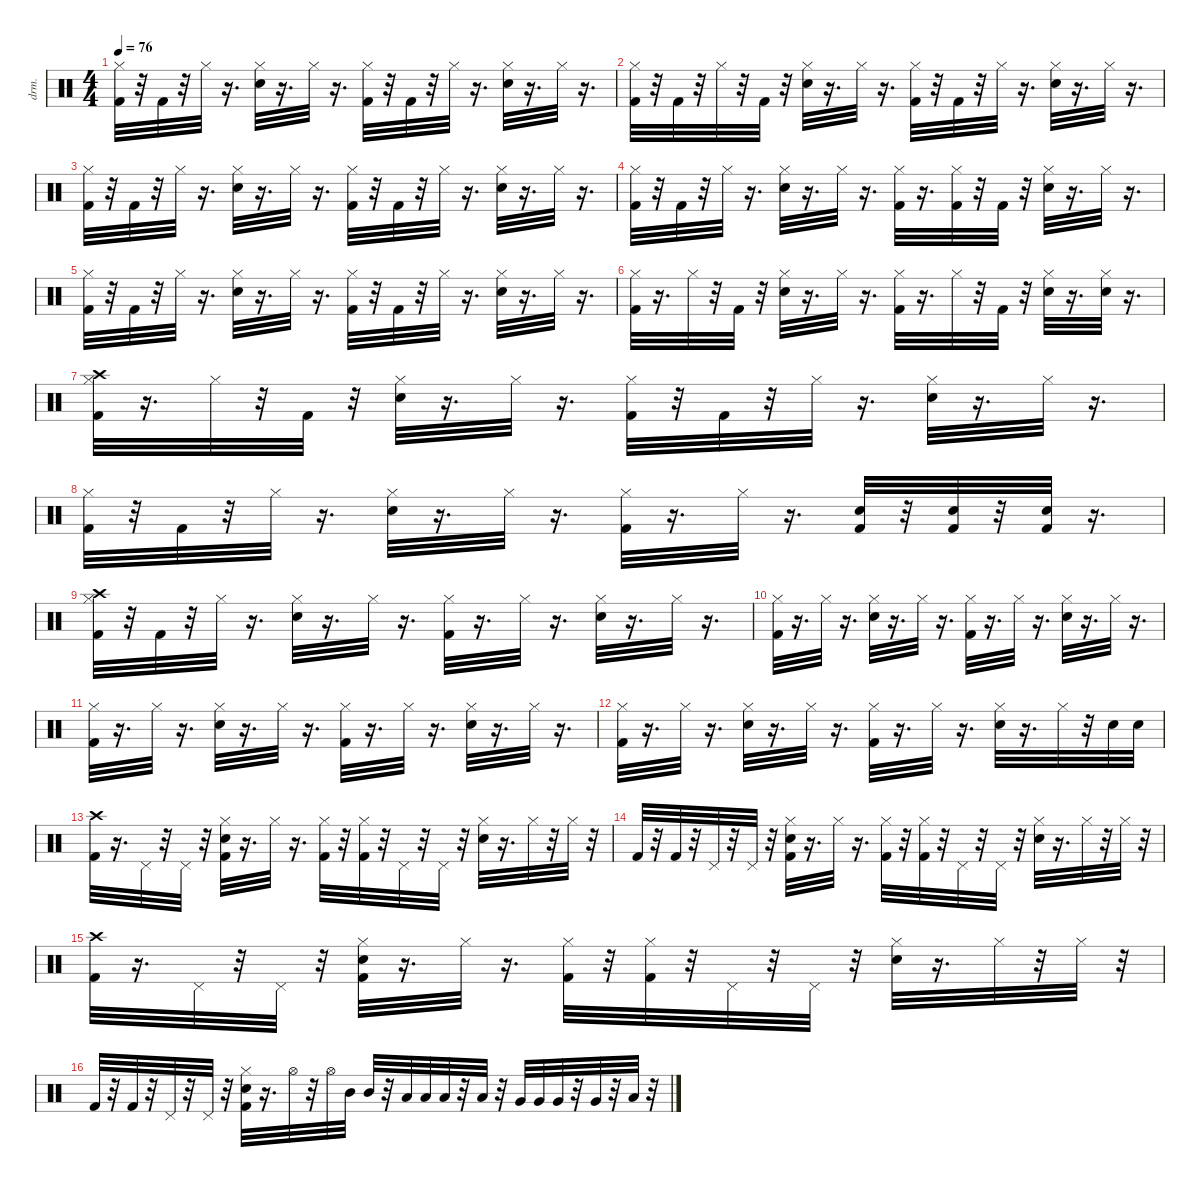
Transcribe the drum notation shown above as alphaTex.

\defaultSystemsLayout 4
\hideDynamics
\bracketExtendMode nobrackets
\otherSystemsTrackNameOrientation horizontal
\track ("Drums" "drm.") {instrument percussion}
\staff {score}
\articulation defaults
\ts (4 4)
\tempo 76
\clef neutral
\ks c
("Hi-Hat (closed)" "Kick (hit) 2").32{dy fff} r.32 "Kick (hit) 2".32 r.32 "Hi-Hat (closed)".32 r.16{d} ("Hi-Hat (closed)" "Snare (hit) 2").32 r.16{d} "Hi-Hat (closed)".32 r.16{d} ("Hi-Hat (closed)" "Kick (hit) 2").32 r.32 "Kick (hit) 2".32 r.32 "Hi-Hat (closed)".32 r.16{d} ("Hi-Hat (closed)" "Snare (hit) 2").32 r.16{d} "Hi-Hat (closed)".32 r.16{d} |
("Kick (hit) 2" "Hi-Hat (closed)").32 r.32 "Kick (hit) 2".32 r.32 "Hi-Hat (closed)".32 r.32 "Kick (hit) 2".32 r.32 ("Snare (hit) 2" "Hi-Hat (closed)").32 r.16{d} "Hi-Hat (closed)".32 r.16{d} ("Kick (hit) 2" "Hi-Hat (closed)").32 r.32 "Kick (hit) 2".32 r.32 "Hi-Hat (closed)".32 r.16{d} ("Snare (hit) 2" "Hi-Hat (closed)").32 r.16{d} "Hi-Hat (closed)".32 r.16{d} |
("Hi-Hat (closed)" "Kick (hit) 2").32 r.32 "Kick (hit) 2".32 r.32 "Hi-Hat (closed)".32 r.16{d} ("Hi-Hat (closed)" "Snare (hit) 2").32 r.16{d} "Hi-Hat (closed)".32 r.16{d} ("Hi-Hat (closed)" "Kick (hit) 2").32 r.32 "Kick (hit) 2".32 r.32 "Hi-Hat (closed)".32 r.16{d} ("Hi-Hat (closed)" "Snare (hit) 2").32 r.16{d} "Hi-Hat (closed)".32 r.16{d} |
("Kick (hit) 2" "Hi-Hat (closed)").32 r.32 "Kick (hit) 2".32 r.32 "Hi-Hat (closed)".32 r.16{d} ("Snare (hit) 2" "Hi-Hat (closed)").32 r.16{d} "Hi-Hat (closed)".32 r.16{d} ("Kick (hit) 2" "Hi-Hat (closed)").32 r.16{d} ("Kick (hit) 2" "Hi-Hat (closed)").32 r.32 "Kick (hit) 2".32 r.32 ("Snare (hit) 2" "Hi-Hat (closed)").32 r.16{d} "Hi-Hat (closed)".32 r.16{d} |
("Hi-Hat (closed)" "Kick (hit) 2").32 r.32 "Kick (hit) 2".32 r.32 "Hi-Hat (closed)".32 r.16{d} ("Hi-Hat (closed)" "Snare (hit) 2").32 r.16{d} "Hi-Hat (closed)".32 r.16{d} ("Hi-Hat (closed)" "Kick (hit) 2").32 r.32 "Kick (hit) 2".32 r.32 "Hi-Hat (closed)".32 r.16{d} ("Hi-Hat (closed)" "Snare (hit) 2").32 r.16{d} "Hi-Hat (closed)".32 r.16{d} |
("Kick (hit) 2" "Hi-Hat (closed)").32 r.16{d} "Hi-Hat (closed)".32 r.32 "Kick (hit) 2".32 r.32 ("Snare (hit) 2" "Hi-Hat (closed)").32 r.16{d} "Hi-Hat (closed)".32 r.16{d} ("Kick (hit) 2" "Hi-Hat (closed)").32 r.16{d} "Hi-Hat (closed)".32 r.32 "Kick (hit) 2".32 r.32 ("Snare (hit) 2" "Hi-Hat (closed)").32 r.16{d} ("Snare (hit) 2" "Hi-Hat (closed)").32 r.16{d} |
("Crash high (hit)" "Hi-Hat (closed)" "Kick (hit) 2").32 r.16{d} "Hi-Hat (closed)".32 r.32 "Kick (hit) 2".32 r.32 ("Hi-Hat (closed)" "Snare (hit) 2").32 r.16{d} "Hi-Hat (closed)".32 r.16{d} ("Hi-Hat (closed)" "Kick (hit) 2").32 r.32 "Kick (hit) 2".32 r.32 "Hi-Hat (closed)".32 r.16{d} ("Hi-Hat (closed)" "Snare (hit) 2").32 r.16{d} "Hi-Hat (closed)".32 r.16{d} |
("Kick (hit) 2" "Hi-Hat (closed)").32 r.32 "Kick (hit) 2".32 r.32 "Hi-Hat (closed)".32 r.16{d} ("Snare (hit) 2" "Hi-Hat (closed)").32 r.16{d} "Hi-Hat (closed)".32 r.16{d} ("Kick (hit) 2" "Hi-Hat (closed)").32 r.16{d} "Hi-Hat (closed)".32 r.16{d} ("Kick (hit) 2" "Snare (hit) 2").32 r.32 ("Kick (hit) 2" "Snare (hit) 2").32 r.32 ("Kick (hit) 2" "Snare (hit) 2").32 r.16{d} |
("Crash high (hit)" "Hi-Hat (closed)" "Kick (hit) 2").32 r.32 "Kick (hit) 2".32 r.32 "Hi-Hat (closed)".32 r.16{d} ("Hi-Hat (closed)" "Snare (hit) 2").32 r.16{d} "Hi-Hat (closed)".32 r.16{d} ("Kick (hit) 2" "Hi-Hat (closed)").32 r.16{d} "Hi-Hat (closed)".32 r.16{d} ("Hi-Hat (closed)" "Snare (hit) 2").32 r.16{d} "Hi-Hat (closed)".32 r.16{d} |
("Kick (hit) 2" "Hi-Hat (closed)").32 r.16{d} "Hi-Hat (closed)".32 r.16{d} ("Snare (hit) 2" "Hi-Hat (closed)").32 r.16{d} "Hi-Hat (closed)".32 r.16{d} ("Kick (hit) 2" "Hi-Hat (closed)").32 r.16{d} "Hi-Hat (closed)".32 r.16{d} ("Hi-Hat (closed)" "Snare (hit) 2").32 r.16{d} "Hi-Hat (closed)".32 r.16{d} |
("Hi-Hat (closed)" "Kick (hit) 2").32 r.16{d} "Hi-Hat (closed)".32 r.16{d} ("Hi-Hat (closed)" "Snare (hit) 2").32 r.16{d} "Hi-Hat (closed)".32 r.16{d} ("Kick (hit) 2" "Hi-Hat (closed)").32 r.16{d} "Hi-Hat (closed)".32 r.16{d} ("Hi-Hat (closed)" "Snare (hit) 2").32 r.16{d} "Hi-Hat (closed)".32 r.16{d} |
("Kick (hit) 2" "Hi-Hat (closed)").32 r.16{d} "Hi-Hat (closed)".32 r.16{d} ("Snare (hit) 2" "Hi-Hat (closed)").32 r.16{d} "Hi-Hat (closed)".32 r.16{d} ("Kick (hit) 2" "Hi-Hat (closed)").32 r.16{d} "Hi-Hat (closed)".32 r.16{d} ("Hi-Hat (closed)" "Snare (hit) 2").32 r.16{d} "Hi-Hat (closed)".32 r.32 "Snare (hit) 2".32 "Snare (hit) 2".32 |
("Crash high (hit)" "Kick (hit) 2").32 r.16{d} "Pedal Hi-Hat (hit)".32 r.32 "Pedal Hi-Hat (hit)".32 r.32 ("Hi-Hat (closed)" "Kick (hit) 2" "Snare (hit) 2").32 r.16{d} "Hi-Hat (closed)".32 r.16{d} ("Hi-Hat (closed)" "Kick (hit) 2").32 r.32 ("Hi-Hat (closed)" "Kick (hit) 2").32 r.32 "Pedal Hi-Hat (hit)".32 r.32 "Pedal Hi-Hat (hit)".32 r.32 ("Hi-Hat (closed)" "Snare (hit) 2").32 r.16{d} "Hi-Hat (closed)".32 r.32 "Hi-Hat (closed)".32 r.32 |
"Kick (hit) 2".32 r.32 "Kick (hit) 2".32 r.32 "Pedal Hi-Hat (hit)".32 r.32 "Pedal Hi-Hat (hit)".32 r.32 ("Hi-Hat (closed)" "Kick (hit) 2" "Snare (hit) 2").32 r.16{d} "Hi-Hat (closed)".32 r.16{d} ("Hi-Hat (closed)" "Kick (hit) 2").32 r.32 ("Hi-Hat (closed)" "Kick (hit) 2").32 r.32 "Pedal Hi-Hat (hit)".32 r.32 "Pedal Hi-Hat (hit)".32 r.32 ("Hi-Hat (closed)" "Snare (hit) 2").32 r.16{d} "Hi-Hat (closed)".32 r.32 "Hi-Hat (closed)".32 r.32 |
("Crash high (hit)" "Kick (hit) 2").32 r.16{d} "Pedal Hi-Hat (hit)".32 r.32 "Pedal Hi-Hat (hit)".32 r.32 ("Hi-Hat (closed)" "Kick (hit) 2" "Snare (hit) 2").32 r.16{d} "Hi-Hat (closed)".32 r.16{d} ("Hi-Hat (closed)" "Kick (hit) 2").32 r.32 ("Hi-Hat (closed)" "Kick (hit) 2").32 r.32 "Pedal Hi-Hat (hit)".32 r.32 "Pedal Hi-Hat (hit)".32 r.32 ("Hi-Hat (closed)" "Snare (hit) 2").32 r.16{d} "Hi-Hat (closed)".32 r.32 "Hi-Hat (closed)".32 r.32 |
"Kick (hit) 2".32 r.32 "Kick (hit) 2".32 r.32 "Pedal Hi-Hat (hit)".32 r.32 "Pedal Hi-Hat (hit)".32 r.32 ("Hi-Hat (closed)" "Kick (hit) 2" "Snare (hit) 2").32 r.16{d} "Hi-Hat (open)".32 r.32 "Hi-Hat (open)".32 "Mid Tom (hit)".32 "Mid Tom (hit)".32 r.32 "Low Tom (hit)".32 "Low Tom (hit)".32 "Low Tom (hit)".32 r.32 "Low Tom (hit)".32 r.32 "Very Low Tom (hit)".32 "Very Low Tom (hit)".32 "Very Low Tom (hit)".32 r.32 "Very Low Tom (hit)".32 r.32 "Low Floor Tom (hit)".32 r.32
